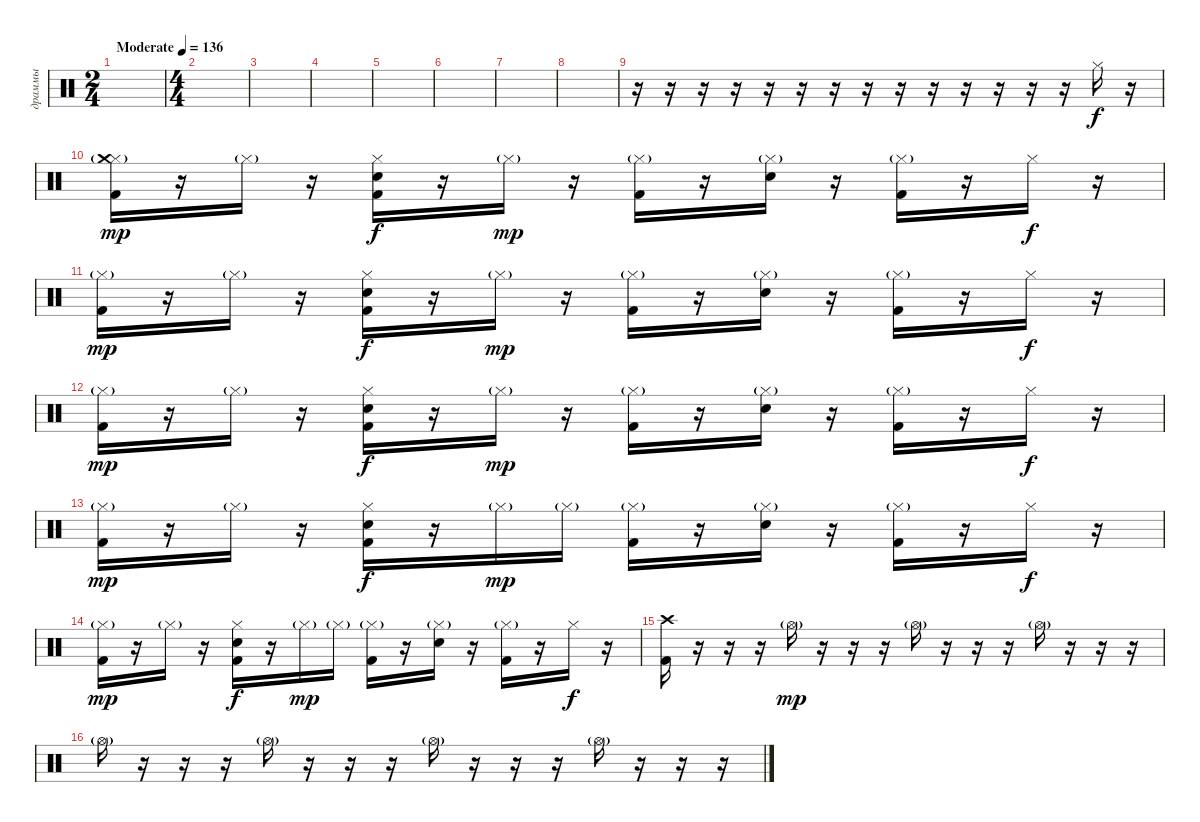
\track ("драммы" "драммы") {instrument percussion}
\staff {score}
\articulation defaults
\ts (2 4)
\tempo (136 "Moderate")
\clef neutral
\ks c
|
\ts (4 4)
|
|
|
|
|
|
|
r.16 r.16 r.16 r.16 r.16 r.16 r.16 r.16 r.16 r.16 r.16 r.16 r.16 r.16 "Hi-Hat (closed)".16 r.16 |
("Kick (hit) 2" "Hi-Hat (closed)"{g} "Crash medium (hit)").16{dy mp} r.16 "Hi-Hat (closed)"{g}.16 r.16 ("Snare (hit) 2" "Kick (hit) 2" "Hi-Hat (closed)").16{dy f} r.16 "Hi-Hat (closed)"{g}.16{dy mp} r.16 ("Kick (hit) 2" "Hi-Hat (closed)"{g}).16 r.16 ("Snare (hit) 2" "Hi-Hat (closed)"{g}).16 r.16 ("Kick (hit) 2" "Hi-Hat (closed)"{g}).16 r.16 "Hi-Hat (closed)".16{dy f} r.16 |
("Kick (hit) 2" "Hi-Hat (closed)"{g}).16{dy mp} r.16 "Hi-Hat (closed)"{g}.16 r.16 ("Snare (hit) 2" "Kick (hit) 2" "Hi-Hat (closed)").16{dy f} r.16 "Hi-Hat (closed)"{g}.16{dy mp} r.16 ("Kick (hit) 2" "Hi-Hat (closed)"{g}).16 r.16 ("Snare (hit) 2" "Hi-Hat (closed)"{g}).16 r.16 ("Kick (hit) 2" "Hi-Hat (closed)"{g}).16 r.16 "Hi-Hat (closed)".16{dy f} r.16 |
("Kick (hit) 2" "Hi-Hat (closed)"{g}).16{dy mp} r.16 "Hi-Hat (closed)"{g}.16 r.16 ("Snare (hit) 2" "Kick (hit) 2" "Hi-Hat (closed)").16{dy f} r.16 "Hi-Hat (closed)"{g}.16{dy mp} r.16 ("Kick (hit) 2" "Hi-Hat (closed)"{g}).16 r.16 ("Snare (hit) 2" "Hi-Hat (closed)"{g}).16 r.16 ("Kick (hit) 2" "Hi-Hat (closed)"{g}).16 r.16 "Hi-Hat (closed)".16{dy f} r.16 |
("Kick (hit) 2" "Hi-Hat (closed)"{g}).16{dy mp} r.16 "Hi-Hat (closed)"{g}.16 r.16 ("Snare (hit) 2" "Kick (hit) 2" "Hi-Hat (closed)").16{dy f} r.16 "Hi-Hat (closed)"{g}.16{dy mp} "Hi-Hat (closed)"{g}.16 ("Kick (hit) 2" "Hi-Hat (closed)"{g}).16 r.16 ("Snare (hit) 2" "Hi-Hat (closed)"{g}).16 r.16 ("Kick (hit) 2" "Hi-Hat (closed)"{g}).16 r.16 "Hi-Hat (closed)".16{dy f} r.16 |
("Kick (hit) 2" "Hi-Hat (closed)"{g}).16{dy mp} r.16 "Hi-Hat (closed)"{g}.16 r.16 ("Snare (hit) 2" "Kick (hit) 2" "Hi-Hat (closed)").16{dy f} r.16 "Hi-Hat (closed)"{g}.16{dy mp} "Hi-Hat (closed)"{g}.16 ("Kick (hit) 2" "Hi-Hat (closed)"{g}).16 r.16 ("Snare (hit) 2" "Hi-Hat (closed)"{g}).16 r.16 ("Kick (hit) 2" "Hi-Hat (closed)"{g}).16 r.16 "Hi-Hat (closed)".16{dy f} r.16 |
("Kick (hit) 2" "Crash high (hit)").16 r.16 r.16 r.16 "Hi-Hat (open)"{g}.16{dy mp} r.16 r.16 r.16 "Hi-Hat (open)"{g}.16 r.16 r.16 r.16 "Hi-Hat (open)"{g}.16 r.16 r.16 r.16 |
"Hi-Hat (open)"{g}.16 r.16 r.16 r.16 "Hi-Hat (open)"{g}.16 r.16 r.16 r.16 "Hi-Hat (open)"{g}.16 r.16 r.16 r.16 "Hi-Hat (open)"{g}.16 r.16 r.16 r.16
